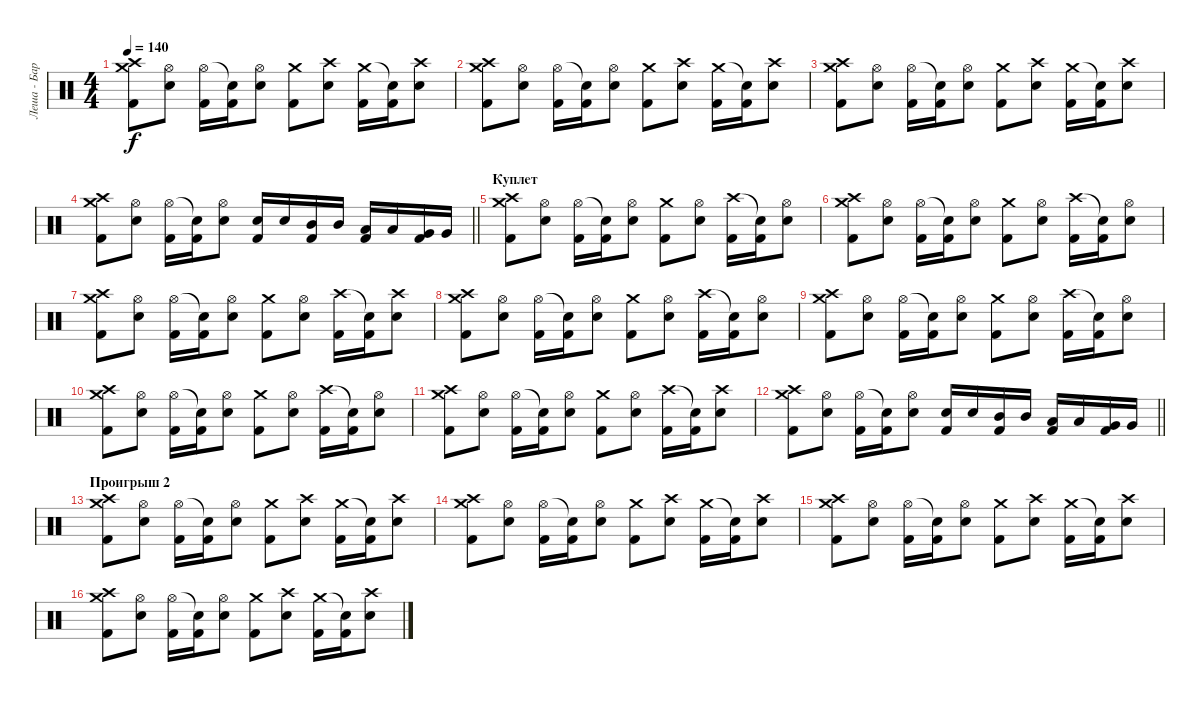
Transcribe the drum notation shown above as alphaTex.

\track ("Леша - Барабаны" "Леша - Бар") {instrument percussion}
\staff {score}
\articulation defaults
\ts (4 4)
\tempo 140
\clef neutral
\ks c
("Crash medium (hit)" "Crash high (hit)" "Kick (hit) 2").8{dy f} ("Hi-Hat (open)" "Snare (hit) 2").8 ("Hi-Hat (open)" "Kick (hit) 2").16 ("Snare (hit)"{t} "Kick (hit) 2").16 ("Hi-Hat (open)" "Snare (hit) 2").8 ("Crash medium (hit)" "Kick (hit) 2").8 ("Crash high (hit)" "Snare (hit) 2").8 ("Crash medium (hit)" "Kick (hit) 2").16 ("Snare (hit)"{t} "Kick (hit) 2").16 ("Crash high (hit)" "Snare (hit) 2").8 |
("Crash medium (hit)" "Crash high (hit)" "Kick (hit) 2").8 ("Hi-Hat (open)" "Snare (hit) 2").8 ("Hi-Hat (open)" "Kick (hit) 2").16 ("Snare (hit)"{t} "Kick (hit) 2").16 ("Hi-Hat (open)" "Snare (hit) 2").8 ("Crash medium (hit)" "Kick (hit) 2").8 ("Crash high (hit)" "Snare (hit) 2").8 ("Crash medium (hit)" "Kick (hit) 2").16 ("Snare (hit)"{t} "Kick (hit) 2").16 ("Crash high (hit)" "Snare (hit) 2").8 |
("Crash medium (hit)" "Crash high (hit)" "Kick (hit) 2").8 ("Hi-Hat (open)" "Snare (hit) 2").8 ("Hi-Hat (open)" "Kick (hit) 2").16 ("Snare (hit)"{t} "Kick (hit) 2").16 ("Hi-Hat (open)" "Snare (hit) 2").8 ("Crash medium (hit)" "Kick (hit) 2").8 ("Crash high (hit)" "Snare (hit) 2").8 ("Crash medium (hit)" "Kick (hit) 2").16 ("Snare (hit)"{t} "Kick (hit) 2").16 ("Crash high (hit)" "Snare (hit) 2").8 |
\barLineRight lightlight
("Crash medium (hit)" "Crash high (hit)" "Kick (hit) 2").8 ("Hi-Hat (open)" "Snare (hit) 2").8 ("Hi-Hat (open)" "Kick (hit) 2").16 ("Snare (hit)"{t} "Kick (hit) 2").16 ("Hi-Hat (open)" "Snare (hit) 2").8 ("Snare (hit) 2" "Kick (hit) 2").16 "Snare (hit) 2".16 ("Mid Tom (hit)" "Kick (hit) 2").16 "Mid Tom (hit)".16 ("Low Tom (hit)" "Kick (hit) 2").16 "Low Tom (hit)".16 ("Very Low Tom (hit)" "Kick (hit) 2").16 "Very Low Tom (hit)".16 |
\section ("" "Куплет")
("Crash medium (hit)" "Crash high (hit)" "Kick (hit) 2").8 ("Hi-Hat (open)" "Snare (hit) 2").8 ("Hi-Hat (open)" "Kick (hit) 2").16 ("Snare (hit)"{t} "Kick (hit) 2").16 ("Hi-Hat (open)" "Snare (hit) 2").8 ("Crash medium (hit)" "Kick (hit) 2").8 ("Hi-Hat (open)" "Snare (hit) 2").8 ("Crash high (hit)" "Kick (hit) 2").16 ("Snare (hit)"{t} "Kick (hit) 2").16 ("Hi-Hat (open)" "Snare (hit) 2").8 |
("Crash medium (hit)" "Crash high (hit)" "Kick (hit) 2").8 ("Hi-Hat (open)" "Snare (hit) 2").8 ("Hi-Hat (open)" "Kick (hit) 2").16 ("Snare (hit)"{t} "Kick (hit) 2").16 ("Hi-Hat (open)" "Snare (hit) 2").8 ("Crash medium (hit)" "Kick (hit) 2").8 ("Hi-Hat (open)" "Snare (hit) 2").8 ("Crash high (hit)" "Kick (hit) 2").16 ("Snare (hit)"{t} "Kick (hit) 2").16 ("Hi-Hat (open)" "Snare (hit) 2").8 |
("Crash medium (hit)" "Crash high (hit)" "Kick (hit) 2").8 ("Hi-Hat (open)" "Snare (hit) 2").8 ("Hi-Hat (open)" "Kick (hit) 2").16 ("Snare (hit)"{t} "Kick (hit) 2").16 ("Hi-Hat (open)" "Snare (hit) 2").8 ("Crash medium (hit)" "Kick (hit) 2").8 ("Hi-Hat (open)" "Snare (hit) 2").8 ("Crash high (hit)" "Kick (hit) 2").16 ("Snare (hit)"{t} "Kick (hit) 2").16 ("Crash high (hit)" "Snare (hit) 2").8 |
("Crash medium (hit)" "Crash high (hit)" "Kick (hit) 2").8 ("Hi-Hat (open)" "Snare (hit) 2").8 ("Hi-Hat (open)" "Kick (hit) 2").16 ("Snare (hit)"{t} "Kick (hit) 2").16 ("Hi-Hat (open)" "Snare (hit) 2").8 ("Crash medium (hit)" "Kick (hit) 2").8 ("Hi-Hat (open)" "Snare (hit) 2").8 ("Crash high (hit)" "Kick (hit) 2").16 ("Snare (hit)"{t} "Kick (hit) 2").16 ("Hi-Hat (open)" "Snare (hit) 2").8 |
("Crash medium (hit)" "Crash high (hit)" "Kick (hit) 2").8 ("Hi-Hat (open)" "Snare (hit) 2").8 ("Hi-Hat (open)" "Kick (hit) 2").16 ("Snare (hit)"{t} "Kick (hit) 2").16 ("Hi-Hat (open)" "Snare (hit) 2").8 ("Crash medium (hit)" "Kick (hit) 2").8 ("Hi-Hat (open)" "Snare (hit) 2").8 ("Crash high (hit)" "Kick (hit) 2").16 ("Snare (hit)"{t} "Kick (hit) 2").16 ("Hi-Hat (open)" "Snare (hit) 2").8 |
("Crash medium (hit)" "Crash high (hit)" "Kick (hit) 2").8 ("Hi-Hat (open)" "Snare (hit) 2").8 ("Hi-Hat (open)" "Kick (hit) 2").16 ("Snare (hit)"{t} "Kick (hit) 2").16 ("Hi-Hat (open)" "Snare (hit) 2").8 ("Crash medium (hit)" "Kick (hit) 2").8 ("Hi-Hat (open)" "Snare (hit) 2").8 ("Crash high (hit)" "Kick (hit) 2").16 ("Snare (hit)"{t} "Kick (hit) 2").16 ("Hi-Hat (open)" "Snare (hit) 2").8 |
("Crash medium (hit)" "Crash high (hit)" "Kick (hit) 2").8 ("Hi-Hat (open)" "Snare (hit) 2").8 ("Hi-Hat (open)" "Kick (hit) 2").16 ("Snare (hit)"{t} "Kick (hit) 2").16 ("Hi-Hat (open)" "Snare (hit) 2").8 ("Crash medium (hit)" "Kick (hit) 2").8 ("Hi-Hat (open)" "Snare (hit) 2").8 ("Crash high (hit)" "Kick (hit) 2").16 ("Snare (hit)"{t} "Kick (hit) 2").16 ("Crash high (hit)" "Snare (hit) 2").8 |
\barLineRight lightlight
("Crash medium (hit)" "Crash high (hit)" "Kick (hit) 2").8 ("Hi-Hat (open)" "Snare (hit) 2").8 ("Hi-Hat (open)" "Kick (hit) 2").16 ("Snare (hit)"{t} "Kick (hit) 2").16 ("Hi-Hat (open)" "Snare (hit) 2").8 ("Snare (hit) 2" "Kick (hit) 2").16 "Snare (hit) 2".16 ("Mid Tom (hit)" "Kick (hit) 2").16 "Mid Tom (hit)".16 ("Low Tom (hit)" "Kick (hit) 2").16 "Low Tom (hit)".16 ("Very Low Tom (hit)" "Kick (hit) 2").16 "Very Low Tom (hit)".16 |
\section ("" "Проигрыш 2")
("Crash medium (hit)" "Crash high (hit)" "Kick (hit) 2").8 ("Hi-Hat (open)" "Snare (hit) 2").8 ("Hi-Hat (open)" "Kick (hit) 2").16 ("Snare (hit)"{t} "Kick (hit) 2").16 ("Hi-Hat (open)" "Snare (hit) 2").8 ("Crash medium (hit)" "Kick (hit) 2").8 ("Crash high (hit)" "Snare (hit) 2").8 ("Crash medium (hit)" "Kick (hit) 2").16 ("Snare (hit)"{t} "Kick (hit) 2").16 ("Crash high (hit)" "Snare (hit) 2").8 |
("Crash medium (hit)" "Crash high (hit)" "Kick (hit) 2").8 ("Hi-Hat (open)" "Snare (hit) 2").8 ("Hi-Hat (open)" "Kick (hit) 2").16 ("Snare (hit)"{t} "Kick (hit) 2").16 ("Hi-Hat (open)" "Snare (hit) 2").8 ("Crash medium (hit)" "Kick (hit) 2").8 ("Crash high (hit)" "Snare (hit) 2").8 ("Crash medium (hit)" "Kick (hit) 2").16 ("Snare (hit)"{t} "Kick (hit) 2").16 ("Crash high (hit)" "Snare (hit) 2").8 |
("Crash medium (hit)" "Crash high (hit)" "Kick (hit) 2").8 ("Hi-Hat (open)" "Snare (hit) 2").8 ("Hi-Hat (open)" "Kick (hit) 2").16 ("Snare (hit)"{t} "Kick (hit) 2").16 ("Hi-Hat (open)" "Snare (hit) 2").8 ("Crash medium (hit)" "Kick (hit) 2").8 ("Crash high (hit)" "Snare (hit) 2").8 ("Crash medium (hit)" "Kick (hit) 2").16 ("Snare (hit)"{t} "Kick (hit) 2").16 ("Crash high (hit)" "Snare (hit) 2").8 |
("Crash medium (hit)" "Crash high (hit)" "Kick (hit) 2").8 ("Hi-Hat (open)" "Snare (hit) 2").8 ("Hi-Hat (open)" "Kick (hit) 2").16 ("Snare (hit)"{t} "Kick (hit) 2").16 ("Hi-Hat (open)" "Snare (hit) 2").8 ("Crash medium (hit)" "Kick (hit) 2").8 ("Crash high (hit)" "Snare (hit) 2").8 ("Crash medium (hit)" "Kick (hit) 2").16 ("Snare (hit)"{t} "Kick (hit) 2").16 ("Crash high (hit)" "Snare (hit) 2").8
